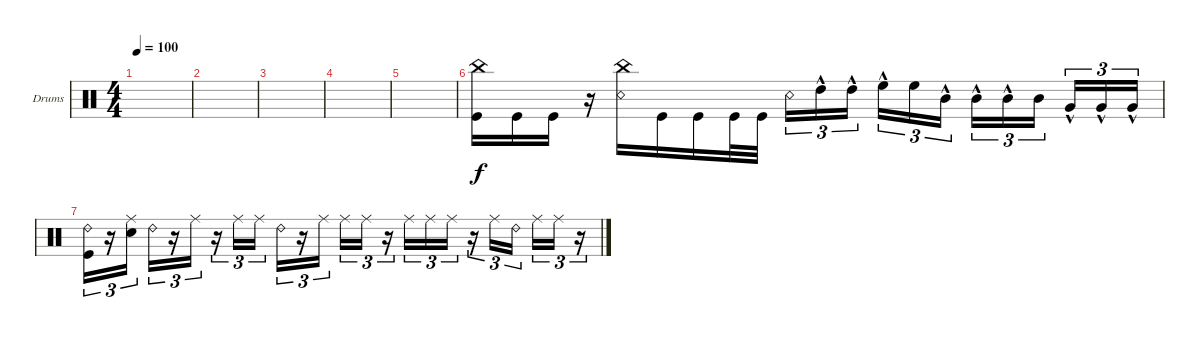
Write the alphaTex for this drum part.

\defaultSystemsLayout 4
\bracketExtendMode groupsimilarinstruments
\firstSystemTrackNameOrientation horizontal
\otherSystemsTrackNameOrientation horizontal
\track ("Drumkit" "Drums") {instrument percussion}
\staff {score}
\articulation defaults
\ts (4 4)
\tempo 100
\clef neutral
\ks c
|
|
|
|
|
("China (hit)" "Kick (hit)").16 "Kick (hit)".16 "Kick (hit)".16 r.16 ("Snare (rim shot)" "China (hit)").16 "Kick (hit)".16 "Kick (hit)".16 "Kick (hit)".32 "Kick (hit)".32 "Snare (rim shot)".16{tu (3 2)} "High Tom (hit)"{hac}.16{tu (3 2)} "High Tom (hit)"{hac}.16{tu (3 2)} "High Floor Tom (hit)"{hac}.16{tu (3 2)} "High Floor Tom (hit)".16{tu (3 2)} "Mid Tom (hit)"{hac}.16{tu (3 2)} "Mid Tom (hit)"{hac}.16{tu (3 2)} "Mid Tom (hit)"{hac}.16{tu (3 2)} "Mid Tom (hit)".16{tu (3 2)} "Very Low Tom (hit)"{hac}.16{tu (3 2)} "Very Low Tom (hit)"{hac}.16{tu (3 2)} "Very Low Tom (hit)"{hac}.16{tu (3 2)} |
("Ride (bell) 2" "Kick (hit)").16{tu (3 2)} r.16{tu (3 2)} ("Ride (middle)" "Snare (hit) 2").16{tu (3 2)} "Ride (bell) 2".16{tu (3 2)} r.16{tu (3 2)} "Ride (middle)".16{tu (3 2)} r.16{tu (3 2)} "Ride (middle)".16{tu (3 2)} "Ride (middle)".16{tu (3 2)} "Ride (bell) 2".16{tu (3 2)} r.16{tu (3 2)} "Ride (middle)".16{tu (3 2)} "Ride (middle)".16{tu (3 2)} "Ride (middle)".16{tu (3 2)} r.16{tu (3 2)} "Ride (middle)".16{tu (3 2)} "Ride (middle)".16{tu (3 2)} "Ride (middle)".16{tu (3 2)} r.16{tu (3 2)} "Ride (middle)".16{tu (3 2)} "Ride (bell) 2".16{tu (3 2)} "Ride (middle)".16{tu (3 2)} "Ride (middle)".16{tu (3 2)} r.16{tu (3 2)}
